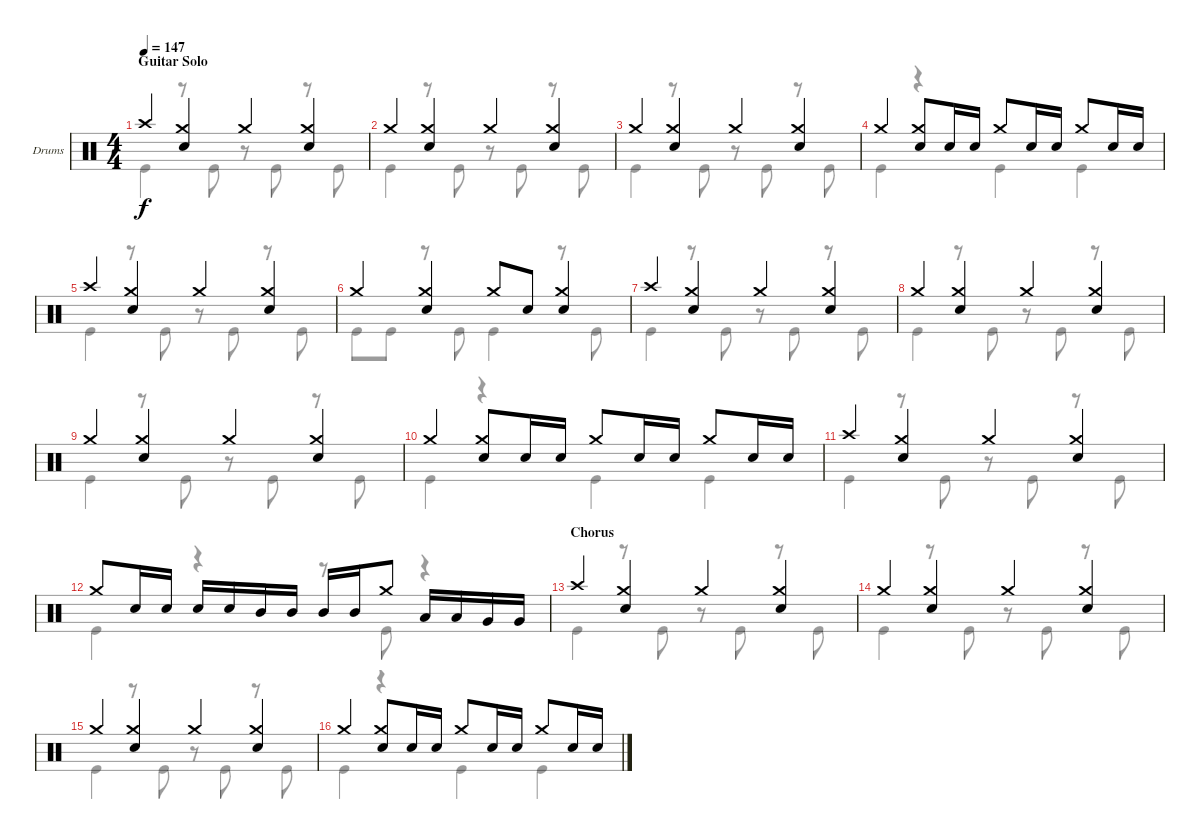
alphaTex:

\defaultSystemsLayout 4
\bracketExtendMode groupsimilarinstruments
\firstSystemTrackNameOrientation horizontal
\otherSystemsTrackNameOrientation horizontal
\track ("Drums" "Drums") {instrument percussion}
\staff {score}
\articulation defaults
\voice
\ts (4 4)
\section ("" "Guitar Solo")
\tempo 147
\clef neutral
\ks c "Crash high (hit)".4{dy f}
("Crash medium (hit)" "Snare (hit) 2").4 "Crash medium (hit)".4 ("Crash medium (hit)" "Snare (hit) 2").4 |
"Crash medium (hit)".4 ("Crash medium (hit)" "Snare (hit) 2").4 "Crash medium (hit)".4 ("Crash medium (hit)" "Snare (hit) 2").4 |
"Crash medium (hit)".4 ("Crash medium (hit)" "Snare (hit) 2").4 "Crash medium (hit)".4 ("Crash medium (hit)" "Snare (hit) 2").4 |
"Crash medium (hit)".4 ("Crash medium (hit)" "Snare (hit) 2").8 "Snare (hit) 2".16 "Snare (hit) 2".16 "Crash medium (hit)".8 "Snare (hit) 2".16 "Snare (hit) 2".16 "Crash medium (hit)".8 "Snare (hit) 2".16 "Snare (hit) 2".16 |
"Crash high (hit)".4 ("Crash medium (hit)" "Snare (hit) 2").4 "Crash medium (hit)".4 ("Crash medium (hit)" "Snare (hit) 2").4 |
"Crash medium (hit)".4 ("Crash medium (hit)" "Snare (hit) 2").4 "Crash medium (hit)".8 "Snare (hit) 2".8 ("Crash medium (hit)" "Snare (hit) 2").4 |
"Crash high (hit)".4 ("Crash medium (hit)" "Snare (hit) 2").4 "Crash medium (hit)".4 ("Crash medium (hit)" "Snare (hit) 2").4 |
"Crash medium (hit)".4 ("Crash medium (hit)" "Snare (hit) 2").4 "Crash medium (hit)".4 ("Crash medium (hit)" "Snare (hit) 2").4 |
"Crash medium (hit)".4 ("Crash medium (hit)" "Snare (hit) 2").4 "Crash medium (hit)".4 ("Crash medium (hit)" "Snare (hit) 2").4 |
"Crash medium (hit)".4 ("Crash medium (hit)" "Snare (hit) 2").8 "Snare (hit) 2".16 "Snare (hit) 2".16 "Crash medium (hit)".8 "Snare (hit) 2".16 "Snare (hit) 2".16 "Crash medium (hit)".8 "Snare (hit) 2".16 "Snare (hit) 2".16 |
"Crash high (hit)".4 ("Crash medium (hit)" "Snare (hit) 2").4 "Crash medium (hit)".4 ("Crash medium (hit)" "Snare (hit) 2").4 |
"Crash medium (hit)".8 "Snare (hit) 2".16 "Snare (hit) 2".16 "Snare (hit) 2".16 "Snare (hit) 2".16 "Mid Tom (hit)".16 "Mid Tom (hit)".16 "Mid Tom (hit)".16 "Mid Tom (hit)".16 "Crash medium (hit)".8 "Low Tom (hit)".16 "Low Tom (hit)".16 "Very Low Tom (hit)".16 "Very Low Tom (hit)".16 |
\section ("" "Chorus")
"Crash high (hit)".4 ("Crash medium (hit)" "Snare (hit) 2").4 "Crash medium (hit)".4 ("Crash medium (hit)" "Snare (hit) 2").4 |
"Crash medium (hit)".4 ("Crash medium (hit)" "Snare (hit) 2").4 "Crash medium (hit)".4 ("Crash medium (hit)" "Snare (hit) 2").4 |
"Crash medium (hit)".4 ("Crash medium (hit)" "Snare (hit) 2").4 "Crash medium (hit)".4 ("Crash medium (hit)" "Snare (hit) 2").4 |
"Crash medium (hit)".4 ("Crash medium (hit)" "Snare (hit) 2").8 "Snare (hit) 2".16 "Snare (hit) 2".16 "Crash medium (hit)".8 "Snare (hit) 2".16 "Snare (hit) 2".16 "Crash medium (hit)".8 "Snare (hit) 2".16 "Snare (hit) 2".16
\voice
\clef neutral
\ottava regular
\simile none
\ks c "Kick (hit)".4{dy f}
r.8 "Kick (hit)".8 r.8 "Kick (hit)".8 r.8 "Kick (hit)".8 |
"Kick (hit)".4 r.8 "Kick (hit)".8 r.8 "Kick (hit)".8 r.8 "Kick (hit)".8 |
"Kick (hit)".4 r.8 "Kick (hit)".8 r.8 "Kick (hit)".8 r.8 "Kick (hit)".8 |
"Kick (hit)".4 r.4 "Kick (hit)".4 "Kick (hit)".4 |
"Kick (hit)".4 r.8 "Kick (hit)".8 r.8 "Kick (hit)".8 r.8 "Kick (hit)".8 |
"Kick (hit)".8 "Kick (hit)".8 r.8 "Kick (hit)".8 "Kick (hit)".4 r.8 "Kick (hit)".8 |
"Kick (hit)".4 r.8 "Kick (hit)".8 r.8 "Kick (hit)".8 r.8 "Kick (hit)".8 |
"Kick (hit)".4 r.8 "Kick (hit)".8 r.8 "Kick (hit)".8 r.8 "Kick (hit)".8 |
"Kick (hit)".4 r.8 "Kick (hit)".8 r.8 "Kick (hit)".8 r.8 "Kick (hit)".8 |
"Kick (hit)".4 r.4 "Kick (hit)".4 "Kick (hit)".4 |
"Kick (hit)".4 r.8 "Kick (hit)".8 r.8 "Kick (hit)".8 r.8 "Kick (hit)".8 |
"Kick (hit)".4 r.4 r.8 "Kick (hit)".8 r.4 |
"Kick (hit)".4 r.8 "Kick (hit)".8 r.8 "Kick (hit)".8 r.8 "Kick (hit)".8 |
"Kick (hit)".4 r.8 "Kick (hit)".8 r.8 "Kick (hit)".8 r.8 "Kick (hit)".8 |
"Kick (hit)".4 r.8 "Kick (hit)".8 r.8 "Kick (hit)".8 r.8 "Kick (hit)".8 |
"Kick (hit)".4 r.4 "Kick (hit)".4 "Kick (hit)".4
